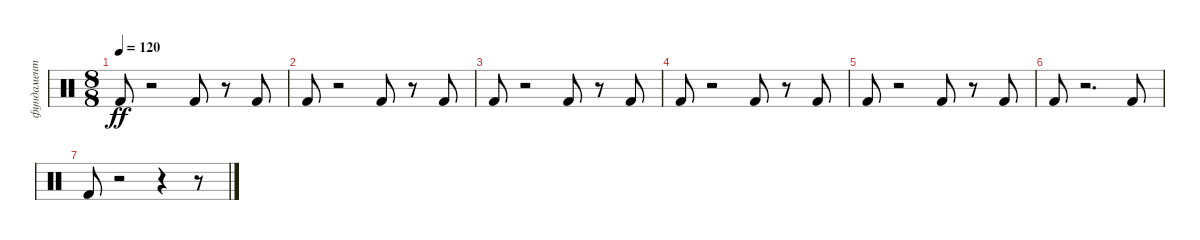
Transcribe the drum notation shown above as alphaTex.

\track ("фундамент" "фундамент") {instrument percussion}
\staff {score}
\articulation defaults
\ts (8 8)
\tempo 120
\clef neutral
\ks c "Kick (hit) 2".8{dy ff volume 10}
r.2 "Kick (hit) 2".8{volume 9} r.8 "Kick (hit) 2".8{volume 8} |
"Kick (hit) 2".8{volume 8} r.2 "Kick (hit) 2".8{volume 6} r.8 "Kick (hit) 2".8{volume 6} |
"Kick (hit) 2".8{volume 6} r.2 "Kick (hit) 2".8{volume 5} r.8 "Kick (hit) 2".8{volume 4} |
"Kick (hit) 2".8{volume 4} r.2 "Kick (hit) 2".8{volume 3} r.8 "Kick (hit) 2".8{volume 3} |
"Kick (hit) 2".8 r.2 "Kick (hit) 2".8{volume 2} r.8 "Kick (hit) 2".8{volume 2} |
"Kick (hit) 2".8{volume 2} r.2{d} "Kick (hit) 2".8{volume 0} |
"Kick (hit) 2".8 r.2 r.4 r.8
